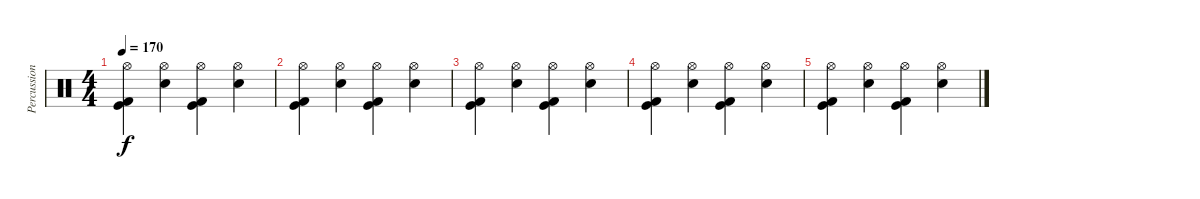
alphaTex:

\track ("Percussion" "Percussion") {instrument percussion}
\staff {score}
\articulation defaults
\ts (4 4)
\tempo 170
\clef neutral
\ks c
("Hi-Hat (open)" "Kick (hit) 2" "Kick (hit)").4{dy f} ("Hi-Hat (open)" "Electric Snare (hit)").4 ("Hi-Hat (open)" "Kick (hit) 2" "Kick (hit)").4 ("Hi-Hat (open)" "Electric Snare (hit)").4 |
("Hi-Hat (open)" "Kick (hit) 2" "Kick (hit)").4 ("Hi-Hat (open)" "Electric Snare (hit)").4 ("Hi-Hat (open)" "Kick (hit) 2" "Kick (hit)").4 ("Hi-Hat (open)" "Electric Snare (hit)").4 |
("Hi-Hat (open)" "Kick (hit) 2" "Kick (hit)").4 ("Hi-Hat (open)" "Electric Snare (hit)").4 ("Hi-Hat (open)" "Kick (hit) 2" "Kick (hit)").4 ("Hi-Hat (open)" "Electric Snare (hit)").4 |
("Hi-Hat (open)" "Kick (hit) 2" "Kick (hit)").4 ("Hi-Hat (open)" "Electric Snare (hit)").4 ("Hi-Hat (open)" "Kick (hit) 2" "Kick (hit)").4 ("Hi-Hat (open)" "Electric Snare (hit)").4 |
("Hi-Hat (open)" "Kick (hit) 2" "Kick (hit)").4 ("Hi-Hat (open)" "Electric Snare (hit)").4 ("Hi-Hat (open)" "Kick (hit) 2" "Kick (hit)").4 ("Hi-Hat (open)" "Electric Snare (hit)").4
